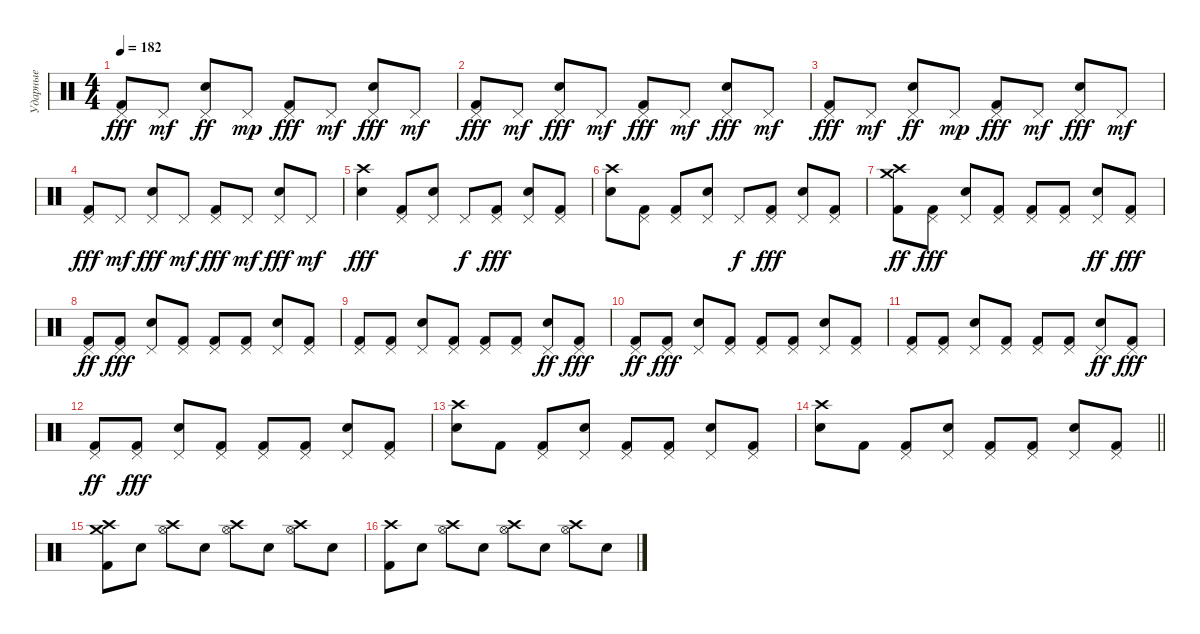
\track ("Ударные" "Ударные") {instrument percussion}
\staff {score}
\articulation defaults
\ts (4 4)
\tempo 182
\clef neutral
\ks c
("Pedal Hi-Hat (hit)" "Kick (hit) 2").8{dy fff} "Pedal Hi-Hat (hit)".8{dy mf} ("Electric Snare (hit)" "Pedal Hi-Hat (hit)").8{dy ff} "Pedal Hi-Hat (hit)".8{dy mp} ("Pedal Hi-Hat (hit)" "Kick (hit) 2").8{dy fff} "Pedal Hi-Hat (hit)".8{dy mf} ("Pedal Hi-Hat (hit)" "Electric Snare (hit)").8{dy fff} "Pedal Hi-Hat (hit)".8{dy mf} |
("Pedal Hi-Hat (hit)" "Kick (hit) 2").8{dy fff} "Pedal Hi-Hat (hit)".8{dy mf} ("Pedal Hi-Hat (hit)" "Electric Snare (hit)").8{dy fff} "Pedal Hi-Hat (hit)".8{dy mf} ("Pedal Hi-Hat (hit)" "Kick (hit) 2").8{dy fff} "Pedal Hi-Hat (hit)".8{dy mf} ("Pedal Hi-Hat (hit)" "Electric Snare (hit)").8{dy fff} "Pedal Hi-Hat (hit)".8{dy mf} |
("Pedal Hi-Hat (hit)" "Kick (hit) 2").8{dy fff} "Pedal Hi-Hat (hit)".8{dy mf} ("Electric Snare (hit)" "Pedal Hi-Hat (hit)").8{dy ff} "Pedal Hi-Hat (hit)".8{dy mp} ("Pedal Hi-Hat (hit)" "Kick (hit) 2").8{dy fff} "Pedal Hi-Hat (hit)".8{dy mf} ("Pedal Hi-Hat (hit)" "Electric Snare (hit)").8{dy fff} "Pedal Hi-Hat (hit)".8{dy mf} |
("Pedal Hi-Hat (hit)" "Kick (hit) 2").8{dy fff} "Pedal Hi-Hat (hit)".8{dy mf} ("Pedal Hi-Hat (hit)" "Electric Snare (hit)").8{dy fff} "Pedal Hi-Hat (hit)".8{dy mf} ("Pedal Hi-Hat (hit)" "Kick (hit) 2").8{dy fff} "Pedal Hi-Hat (hit)".8{dy mf} ("Pedal Hi-Hat (hit)" "Electric Snare (hit)").8{dy fff} "Pedal Hi-Hat (hit)".8{dy mf} |
("Crash high (hit)" "Electric Snare (hit)").4{dy fff} ("Pedal Hi-Hat (hit)" "Kick (hit) 2").8 ("Pedal Hi-Hat (hit)" "Electric Snare (hit)").8 "Pedal Hi-Hat (hit)".8{dy f} ("Pedal Hi-Hat (hit)" "Kick (hit) 2").8{dy fff} ("Pedal Hi-Hat (hit)" "Electric Snare (hit)").8 ("Pedal Hi-Hat (hit)" "Kick (hit) 2").8 |
("Electric Snare (hit)" "Crash high (hit)").8 ("Pedal Hi-Hat (hit)" "Kick (hit) 2").8 ("Pedal Hi-Hat (hit)" "Kick (hit) 2").8 ("Pedal Hi-Hat (hit)" "Electric Snare (hit)").8 "Pedal Hi-Hat (hit)".8{dy f} ("Pedal Hi-Hat (hit)" "Kick (hit) 2").8{dy fff} ("Pedal Hi-Hat (hit)" "Electric Snare (hit)").8 ("Pedal Hi-Hat (hit)" "Kick (hit) 2").8 |
("Crash medium (hit)" "Kick (hit) 2" "Crash high (hit)").8{dy ff} ("Pedal Hi-Hat (hit)" "Kick (hit) 2").8{dy fff} ("Pedal Hi-Hat (hit)" "Electric Snare (hit)").8 ("Pedal Hi-Hat (hit)" "Kick (hit) 2").8 ("Pedal Hi-Hat (hit)" "Kick (hit) 2").8 ("Pedal Hi-Hat (hit)" "Kick (hit) 2").8 ("Electric Snare (hit)" "Pedal Hi-Hat (hit)").8{dy ff} ("Pedal Hi-Hat (hit)" "Kick (hit) 2").8{dy fff} |
("Kick (hit) 2" "Pedal Hi-Hat (hit)").8{dy ff} ("Pedal Hi-Hat (hit)" "Kick (hit) 2").8{dy fff} ("Pedal Hi-Hat (hit)" "Electric Snare (hit)").8 ("Pedal Hi-Hat (hit)" "Kick (hit) 2").8 ("Pedal Hi-Hat (hit)" "Kick (hit) 2").8 ("Pedal Hi-Hat (hit)" "Kick (hit) 2").8 ("Pedal Hi-Hat (hit)" "Electric Snare (hit)").8 ("Pedal Hi-Hat (hit)" "Kick (hit) 2").8 |
("Pedal Hi-Hat (hit)" "Kick (hit) 2").8 ("Pedal Hi-Hat (hit)" "Kick (hit) 2").8 ("Pedal Hi-Hat (hit)" "Electric Snare (hit)").8 ("Pedal Hi-Hat (hit)" "Kick (hit) 2").8 ("Pedal Hi-Hat (hit)" "Kick (hit) 2").8 ("Pedal Hi-Hat (hit)" "Kick (hit) 2").8 ("Electric Snare (hit)" "Pedal Hi-Hat (hit)").8{dy ff} ("Pedal Hi-Hat (hit)" "Kick (hit) 2").8{dy fff} |
("Kick (hit) 2" "Pedal Hi-Hat (hit)").8{dy ff} ("Pedal Hi-Hat (hit)" "Kick (hit) 2").8{dy fff} ("Pedal Hi-Hat (hit)" "Electric Snare (hit)").8 ("Pedal Hi-Hat (hit)" "Kick (hit) 2").8 ("Pedal Hi-Hat (hit)" "Kick (hit) 2").8 ("Pedal Hi-Hat (hit)" "Kick (hit) 2").8 ("Pedal Hi-Hat (hit)" "Electric Snare (hit)").8 ("Pedal Hi-Hat (hit)" "Kick (hit) 2").8 |
("Pedal Hi-Hat (hit)" "Kick (hit) 2").8 ("Pedal Hi-Hat (hit)" "Kick (hit) 2").8 ("Pedal Hi-Hat (hit)" "Electric Snare (hit)").8 ("Pedal Hi-Hat (hit)" "Kick (hit) 2").8 ("Pedal Hi-Hat (hit)" "Kick (hit) 2").8 ("Pedal Hi-Hat (hit)" "Kick (hit) 2").8 ("Electric Snare (hit)" "Pedal Hi-Hat (hit)").8{dy ff} ("Pedal Hi-Hat (hit)" "Kick (hit) 2").8{dy fff} |
("Kick (hit) 2" "Pedal Hi-Hat (hit)").8{dy ff} ("Pedal Hi-Hat (hit)" "Kick (hit) 2").8{dy fff} ("Pedal Hi-Hat (hit)" "Electric Snare (hit)").8 ("Pedal Hi-Hat (hit)" "Kick (hit) 2").8 ("Pedal Hi-Hat (hit)" "Kick (hit) 2").8 ("Pedal Hi-Hat (hit)" "Kick (hit) 2").8 ("Pedal Hi-Hat (hit)" "Electric Snare (hit)").8 ("Pedal Hi-Hat (hit)" "Kick (hit) 2").8 |
("Crash high (hit)" "Electric Snare (hit)").8 "Kick (hit) 2".8 ("Pedal Hi-Hat (hit)" "Kick (hit) 2").8 ("Pedal Hi-Hat (hit)" "Electric Snare (hit)").8 ("Kick (hit) 2" "Pedal Hi-Hat (hit)").8 ("Pedal Hi-Hat (hit)" "Kick (hit) 2").8 ("Pedal Hi-Hat (hit)" "Electric Snare (hit)").8 ("Pedal Hi-Hat (hit)" "Kick (hit) 2").8 |
\barLineRight lightlight
("Crash high (hit)" "Electric Snare (hit)").8 "Kick (hit) 2".8 ("Pedal Hi-Hat (hit)" "Kick (hit) 2").8 ("Pedal Hi-Hat (hit)" "Electric Snare (hit)").8 ("Kick (hit) 2" "Pedal Hi-Hat (hit)").8 ("Pedal Hi-Hat (hit)" "Kick (hit) 2").8 ("Pedal Hi-Hat (hit)" "Electric Snare (hit)").8 ("Pedal Hi-Hat (hit)" "Kick (hit) 2").8 |
\section ("" "")
("Crash high (hit)" "Kick (hit) 2" "Crash medium (hit)").8 "Electric Snare (hit)".8 ("Crash high (hit)" "Hi-Hat (open)").8 "Electric Snare (hit)".8 ("Crash high (hit)" "Hi-Hat (open)").8 "Electric Snare (hit)".8 ("Crash high (hit)" "Hi-Hat (open)").8 "Electric Snare (hit)".8 |
("Crash high (hit)" "Kick (hit) 2").8 "Electric Snare (hit)".8 ("Crash high (hit)" "Hi-Hat (open)").8 "Electric Snare (hit)".8 ("Crash high (hit)" "Hi-Hat (open)").8 "Electric Snare (hit)".8 ("Crash high (hit)" "Hi-Hat (open)").8 "Electric Snare (hit)".8
